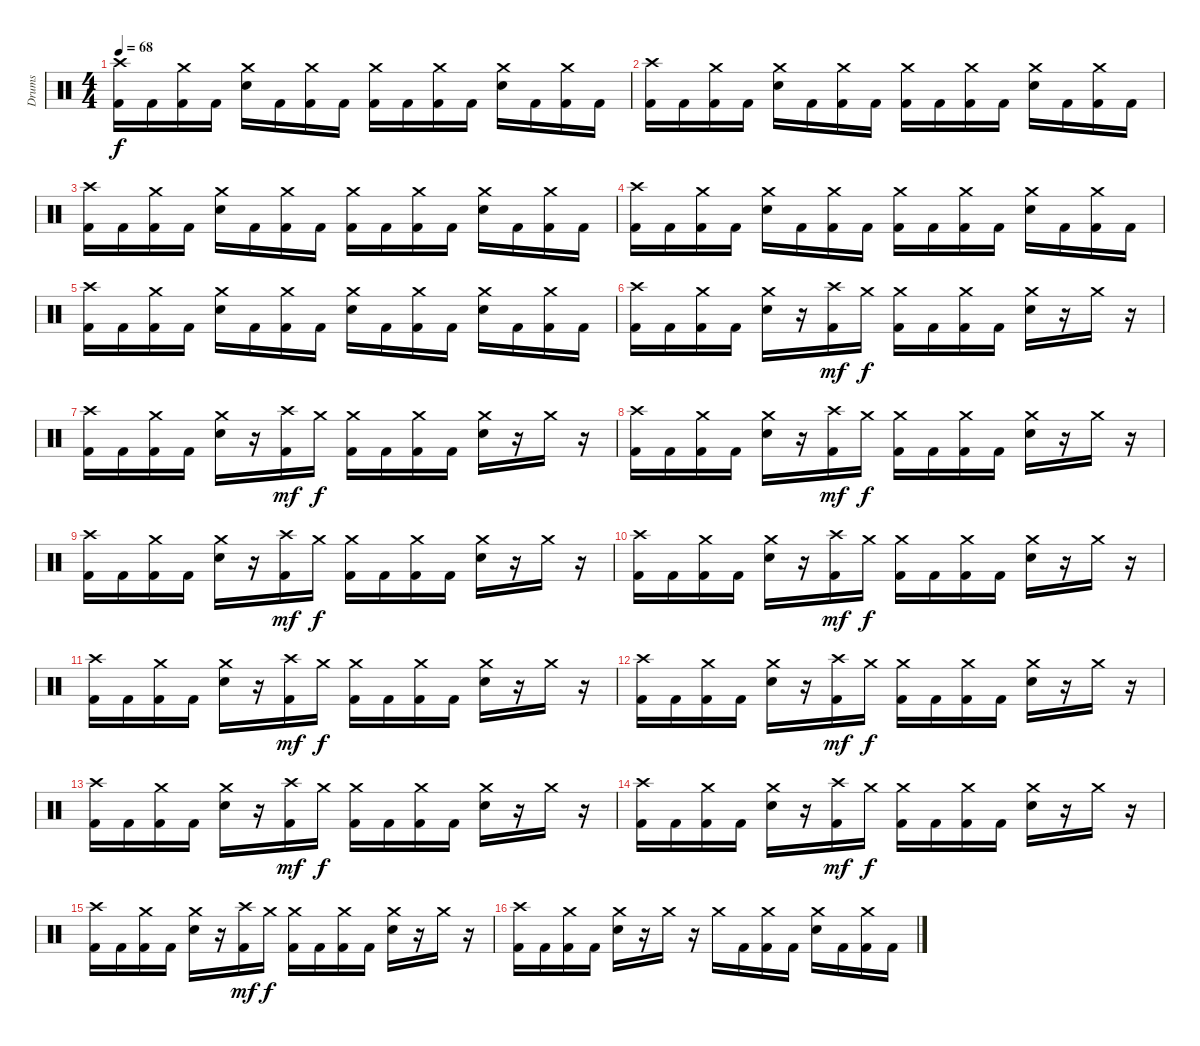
\track ("Drums" "Drums") {instrument percussion}
\staff {score}
\articulation defaults
\ts (4 4)
\tempo 68
\clef neutral
\ks c
("Crash high (hit)" "Kick (hit) 2").16{dy f} "Kick (hit) 2".16 ("Crash medium (hit)" "Kick (hit) 2").16 "Kick (hit) 2".16 ("Crash medium (hit)" "Electric Snare (hit)").16 "Kick (hit) 2".16 ("Crash medium (hit)" "Kick (hit) 2").16 "Kick (hit) 2".16 ("Crash medium (hit)" "Kick (hit) 2").16 "Kick (hit) 2".16 ("Crash medium (hit)" "Kick (hit) 2").16 "Kick (hit) 2".16 ("Crash medium (hit)" "Electric Snare (hit)").16 "Kick (hit) 2".16 ("Crash medium (hit)" "Kick (hit) 2").16 "Kick (hit) 2".16 |
("Crash high (hit)" "Kick (hit) 2").16 "Kick (hit) 2".16 ("Crash medium (hit)" "Kick (hit) 2").16 "Kick (hit) 2".16 ("Crash medium (hit)" "Electric Snare (hit)").16 "Kick (hit) 2".16 ("Crash medium (hit)" "Kick (hit) 2").16 "Kick (hit) 2".16 ("Crash medium (hit)" "Kick (hit) 2").16 "Kick (hit) 2".16 ("Crash medium (hit)" "Kick (hit) 2").16 "Kick (hit) 2".16 ("Crash medium (hit)" "Electric Snare (hit)").16 "Kick (hit) 2".16 ("Crash medium (hit)" "Kick (hit) 2").16 "Kick (hit) 2".16 |
("Crash high (hit)" "Kick (hit) 2").16 "Kick (hit) 2".16 ("Crash medium (hit)" "Kick (hit) 2").16 "Kick (hit) 2".16 ("Crash medium (hit)" "Electric Snare (hit)").16 "Kick (hit) 2".16 ("Crash medium (hit)" "Kick (hit) 2").16 "Kick (hit) 2".16 ("Crash medium (hit)" "Kick (hit) 2").16 "Kick (hit) 2".16 ("Crash medium (hit)" "Kick (hit) 2").16 "Kick (hit) 2".16 ("Crash medium (hit)" "Electric Snare (hit)").16 "Kick (hit) 2".16 ("Crash medium (hit)" "Kick (hit) 2").16 "Kick (hit) 2".16 |
("Crash high (hit)" "Kick (hit) 2").16 "Kick (hit) 2".16 ("Crash medium (hit)" "Kick (hit) 2").16 "Kick (hit) 2".16 ("Crash medium (hit)" "Electric Snare (hit)").16 "Kick (hit) 2".16 ("Crash medium (hit)" "Kick (hit) 2").16 "Kick (hit) 2".16 ("Crash medium (hit)" "Kick (hit) 2").16 "Kick (hit) 2".16 ("Crash medium (hit)" "Kick (hit) 2").16 "Kick (hit) 2".16 ("Crash medium (hit)" "Electric Snare (hit)").16 "Kick (hit) 2".16 ("Crash medium (hit)" "Kick (hit) 2").16 "Kick (hit) 2".16 |
("Crash high (hit)" "Kick (hit) 2").16 "Kick (hit) 2".16 ("Crash medium (hit)" "Kick (hit) 2").16 "Kick (hit) 2".16 ("Crash medium (hit)" "Electric Snare (hit)").16 "Kick (hit) 2".16 ("Crash medium (hit)" "Kick (hit) 2").16 "Kick (hit) 2".16 ("Crash medium (hit)" "Electric Snare (hit)").16 "Kick (hit) 2".16 ("Crash medium (hit)" "Kick (hit) 2").16 "Kick (hit) 2".16 ("Crash medium (hit)" "Electric Snare (hit)").16 "Kick (hit) 2".16 ("Crash medium (hit)" "Kick (hit) 2").16 "Kick (hit) 2".16 |
("Crash high (hit)" "Kick (hit) 2").16 "Kick (hit) 2".16 ("Crash medium (hit)" "Kick (hit) 2").16 "Kick (hit) 2".16 ("Crash medium (hit)" "Electric Snare (hit)").16 r.16 ("Crash high (hit)" "Kick (hit) 2").16{dy mf} "Crash medium (hit)".16{dy f} ("Crash medium (hit)" "Kick (hit) 2").16 "Kick (hit) 2".16 ("Crash medium (hit)" "Kick (hit) 2").16 "Kick (hit) 2".16 ("Crash medium (hit)" "Electric Snare (hit)").16 r.16 "Crash medium (hit)".16 r.16 |
("Crash high (hit)" "Kick (hit) 2").16 "Kick (hit) 2".16 ("Crash medium (hit)" "Kick (hit) 2").16 "Kick (hit) 2".16 ("Crash medium (hit)" "Electric Snare (hit)").16 r.16 ("Crash high (hit)" "Kick (hit) 2").16{dy mf} "Crash medium (hit)".16{dy f} ("Crash medium (hit)" "Kick (hit) 2").16 "Kick (hit) 2".16 ("Crash medium (hit)" "Kick (hit) 2").16 "Kick (hit) 2".16 ("Crash medium (hit)" "Electric Snare (hit)").16 r.16 "Crash medium (hit)".16 r.16 |
("Crash high (hit)" "Kick (hit) 2").16 "Kick (hit) 2".16 ("Crash medium (hit)" "Kick (hit) 2").16 "Kick (hit) 2".16 ("Crash medium (hit)" "Electric Snare (hit)").16 r.16 ("Crash high (hit)" "Kick (hit) 2").16{dy mf} "Crash medium (hit)".16{dy f} ("Crash medium (hit)" "Kick (hit) 2").16 "Kick (hit) 2".16 ("Crash medium (hit)" "Kick (hit) 2").16 "Kick (hit) 2".16 ("Crash medium (hit)" "Electric Snare (hit)").16 r.16 "Crash medium (hit)".16 r.16 |
("Crash high (hit)" "Kick (hit) 2").16 "Kick (hit) 2".16 ("Crash medium (hit)" "Kick (hit) 2").16 "Kick (hit) 2".16 ("Crash medium (hit)" "Electric Snare (hit)").16 r.16 ("Crash high (hit)" "Kick (hit) 2").16{dy mf} "Crash medium (hit)".16{dy f} ("Crash medium (hit)" "Kick (hit) 2").16 "Kick (hit) 2".16 ("Crash medium (hit)" "Kick (hit) 2").16 "Kick (hit) 2".16 ("Crash medium (hit)" "Electric Snare (hit)").16 r.16 "Crash medium (hit)".16 r.16 |
("Crash high (hit)" "Kick (hit) 2").16 "Kick (hit) 2".16 ("Crash medium (hit)" "Kick (hit) 2").16 "Kick (hit) 2".16 ("Crash medium (hit)" "Electric Snare (hit)").16 r.16 ("Crash high (hit)" "Kick (hit) 2").16{dy mf} "Crash medium (hit)".16{dy f} ("Crash medium (hit)" "Kick (hit) 2").16 "Kick (hit) 2".16 ("Crash medium (hit)" "Kick (hit) 2").16 "Kick (hit) 2".16 ("Crash medium (hit)" "Electric Snare (hit)").16 r.16 "Crash medium (hit)".16 r.16 |
("Crash high (hit)" "Kick (hit) 2").16 "Kick (hit) 2".16 ("Crash medium (hit)" "Kick (hit) 2").16 "Kick (hit) 2".16 ("Crash medium (hit)" "Electric Snare (hit)").16 r.16 ("Crash high (hit)" "Kick (hit) 2").16{dy mf} "Crash medium (hit)".16{dy f} ("Crash medium (hit)" "Kick (hit) 2").16 "Kick (hit) 2".16 ("Crash medium (hit)" "Kick (hit) 2").16 "Kick (hit) 2".16 ("Crash medium (hit)" "Electric Snare (hit)").16 r.16 "Crash medium (hit)".16 r.16 |
("Crash high (hit)" "Kick (hit) 2").16 "Kick (hit) 2".16 ("Crash medium (hit)" "Kick (hit) 2").16 "Kick (hit) 2".16 ("Crash medium (hit)" "Electric Snare (hit)").16 r.16 ("Crash high (hit)" "Kick (hit) 2").16{dy mf} "Crash medium (hit)".16{dy f} ("Crash medium (hit)" "Kick (hit) 2").16 "Kick (hit) 2".16 ("Crash medium (hit)" "Kick (hit) 2").16 "Kick (hit) 2".16 ("Crash medium (hit)" "Electric Snare (hit)").16 r.16 "Crash medium (hit)".16 r.16 |
("Crash high (hit)" "Kick (hit) 2").16 "Kick (hit) 2".16 ("Crash medium (hit)" "Kick (hit) 2").16 "Kick (hit) 2".16 ("Crash medium (hit)" "Electric Snare (hit)").16 r.16 ("Crash high (hit)" "Kick (hit) 2").16{dy mf} "Crash medium (hit)".16{dy f} ("Crash medium (hit)" "Kick (hit) 2").16 "Kick (hit) 2".16 ("Crash medium (hit)" "Kick (hit) 2").16 "Kick (hit) 2".16 ("Crash medium (hit)" "Electric Snare (hit)").16 r.16 "Crash medium (hit)".16 r.16 |
("Crash high (hit)" "Kick (hit) 2").16 "Kick (hit) 2".16 ("Crash medium (hit)" "Kick (hit) 2").16 "Kick (hit) 2".16 ("Crash medium (hit)" "Electric Snare (hit)").16 r.16 ("Crash high (hit)" "Kick (hit) 2").16{dy mf} "Crash medium (hit)".16{dy f} ("Crash medium (hit)" "Kick (hit) 2").16 "Kick (hit) 2".16 ("Crash medium (hit)" "Kick (hit) 2").16 "Kick (hit) 2".16 ("Crash medium (hit)" "Electric Snare (hit)").16 r.16 "Crash medium (hit)".16 r.16 |
("Crash high (hit)" "Kick (hit) 2").16 "Kick (hit) 2".16 ("Crash medium (hit)" "Kick (hit) 2").16 "Kick (hit) 2".16 ("Crash medium (hit)" "Electric Snare (hit)").16 r.16 ("Crash high (hit)" "Kick (hit) 2").16{dy mf} "Crash medium (hit)".16{dy f} ("Crash medium (hit)" "Kick (hit) 2").16 "Kick (hit) 2".16 ("Crash medium (hit)" "Kick (hit) 2").16 "Kick (hit) 2".16 ("Crash medium (hit)" "Electric Snare (hit)").16 r.16 "Crash medium (hit)".16 r.16 |
("Crash high (hit)" "Kick (hit) 2").16 "Kick (hit) 2".16 ("Crash medium (hit)" "Kick (hit) 2").16 "Kick (hit) 2".16 ("Crash medium (hit)" "Electric Snare (hit)").16 r.16 "Crash medium (hit)".16 r.16 "Crash medium (hit)".16 "Kick (hit) 2".16 ("Crash medium (hit)" "Kick (hit) 2").16 "Kick (hit) 2".16 ("Crash medium (hit)" "Electric Snare (hit)").16 "Kick (hit) 2".16 ("Crash medium (hit)" "Kick (hit) 2").16 "Kick (hit) 2".16
